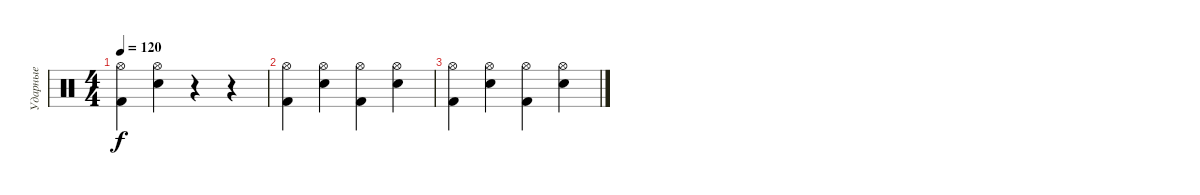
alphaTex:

\track ("Ударные" "Ударные") {instrument percussion}
\staff {score}
\articulation defaults
\ts (4 4)
\tempo 120
\clef neutral
\ks c
("Kick (hit) 2" "Hi-Hat (open)").4{dy f} ("Electric Snare (hit)" "Hi-Hat (open)").4 r.4 r.4 |
("Kick (hit) 2" "Hi-Hat (open)").4 ("Electric Snare (hit)" "Hi-Hat (open)").4 ("Kick (hit) 2" "Hi-Hat (open)").4 ("Electric Snare (hit)" "Hi-Hat (open)").4 |
("Kick (hit) 2" "Hi-Hat (open)").4 ("Electric Snare (hit)" "Hi-Hat (open)").4 ("Kick (hit) 2" "Hi-Hat (open)").4 ("Electric Snare (hit)" "Hi-Hat (open)").4
